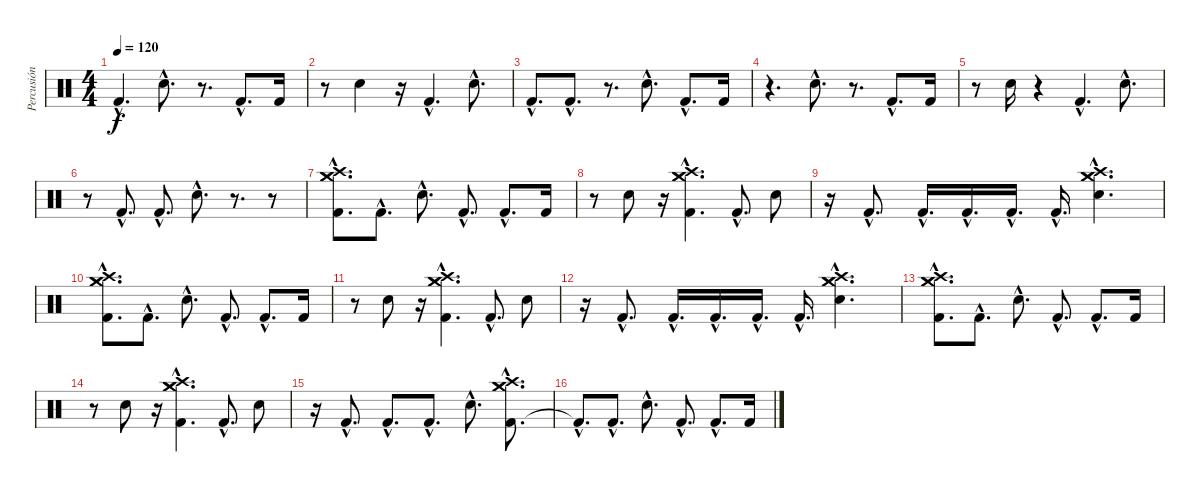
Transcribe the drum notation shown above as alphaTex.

\track ("Percusión" "Percusión") {instrument percussion}
\staff {score}
\articulation defaults
\ts (4 4)
\tempo 120
\clef neutral
\ks c "Kick (hit) 2"{hac}.4{d dy f} "Electric Snare (hit)"{hac}.8{d}
r.8{d} "Kick (hit) 2"{hac}.8{d} "Kick (hit) 2".16 |
r.8 "Electric Snare (hit)".4 r.16 "Kick (hit) 2"{hac}.4{d} "Electric Snare (hit)"{hac}.8{d} |
"Kick (hit) 2"{hac}.8{d} "Kick (hit) 2"{hac}.8{d} r.8{d} "Electric Snare (hit)"{hac}.8{d} "Kick (hit) 2"{hac}.8{d} "Kick (hit) 2".16 |
r.4{d} "Electric Snare (hit)"{hac}.8{d} r.8{d} "Kick (hit) 2"{hac}.8{d} "Kick (hit) 2".16 |
r.8 "Electric Snare (hit)".16 r.4 "Kick (hit) 2"{hac}.4{d} "Electric Snare (hit)"{hac}.8{d} |
r.8 "Kick (hit) 2"{hac}.8{d} "Kick (hit) 2"{hac}.8{d} "Electric Snare (hit)"{hac}.8{d} r.8{d} r.8 |
("Kick (hit) 2"{hac} "Crash medium (hit)"{hac} "Crash high (hit)"{hac} "Crash medium (hit)"{hac}).8{d} "Kick (hit) 2"{hac}.8{d} "Electric Snare (hit)"{hac}.8{d} "Kick (hit) 2"{hac}.8{d} "Kick (hit) 2"{hac}.8{d} "Kick (hit) 2".16 |
r.8 "Electric Snare (hit)".8 r.16 ("Kick (hit) 2"{hac} "Crash high (hit)"{hac} "Crash medium (hit)"{hac} "Crash medium (hit)"{hac}).4{d} "Kick (hit) 2"{hac}.8{d} "Electric Snare (hit)".8 |
r.16 "Kick (hit) 2"{hac}.8{d} "Kick (hit) 2"{hac}.16{d} "Kick (hit) 2"{hac}.16{d} "Kick (hit) 2"{hac}.16{d} "Kick (hit) 2"{hac}.16{d} ("Electric Snare (hit)"{hac} "Crash high (hit)"{hac} "Crash medium (hit)"{hac} "Crash medium (hit)"{hac}).4{d} |
("Kick (hit) 2"{hac} "Crash high (hit)"{hac} "Crash medium (hit)"{hac} "Crash medium (hit)"{hac}).8{d} "Kick (hit) 2"{hac}.8{d} "Electric Snare (hit)"{hac}.8{d} "Kick (hit) 2"{hac}.8{d} "Kick (hit) 2"{hac}.8{d} "Kick (hit) 2".16 |
r.8 "Electric Snare (hit)".8 r.16 ("Kick (hit) 2"{hac} "Crash high (hit)"{hac} "Crash medium (hit)"{hac} "Crash medium (hit)"{hac}).4{d} "Kick (hit) 2"{hac}.8{d} "Electric Snare (hit)".8 |
r.16 "Kick (hit) 2"{hac}.8{d} "Kick (hit) 2"{hac}.16{d} "Kick (hit) 2"{hac}.16{d} "Kick (hit) 2"{hac}.16{d} "Kick (hit) 2"{hac}.16{d} ("Electric Snare (hit)"{hac} "Crash high (hit)"{hac} "Crash medium (hit)"{hac} "Crash medium (hit)"{hac}).4{d} |
("Kick (hit) 2"{hac} "Crash high (hit)"{hac} "Crash medium (hit)"{hac} "Crash medium (hit)"{hac}).8{d} "Kick (hit) 2"{hac}.8{d} "Electric Snare (hit)"{hac}.8{d} "Kick (hit) 2"{hac}.8{d} "Kick (hit) 2"{hac}.8{d} "Kick (hit) 2".16 |
r.8 "Electric Snare (hit)".8 r.16 ("Kick (hit) 2"{hac} "Crash high (hit)"{hac} "Crash medium (hit)"{hac} "Crash medium (hit)"{hac}).4{d} "Kick (hit) 2"{hac}.8{d} "Electric Snare (hit)".8 |
r.16 "Kick (hit) 2"{hac}.8{d} "Kick (hit) 2"{hac}.8{d} "Kick (hit) 2"{hac}.8{d} "Electric Snare (hit)"{hac}.8{d} ("Kick (hit) 2"{hac} "Crash high (hit)"{hac} "Crash medium (hit)"{hac} "Crash medium (hit)"{hac}).8{d} |
"Kick (hit) 2"{hac t}.8{d} "Kick (hit) 2"{hac}.8{d} "Electric Snare (hit)"{hac}.8{d} "Kick (hit) 2"{hac}.8{d} "Kick (hit) 2"{hac}.8{d} "Kick (hit) 2".16
